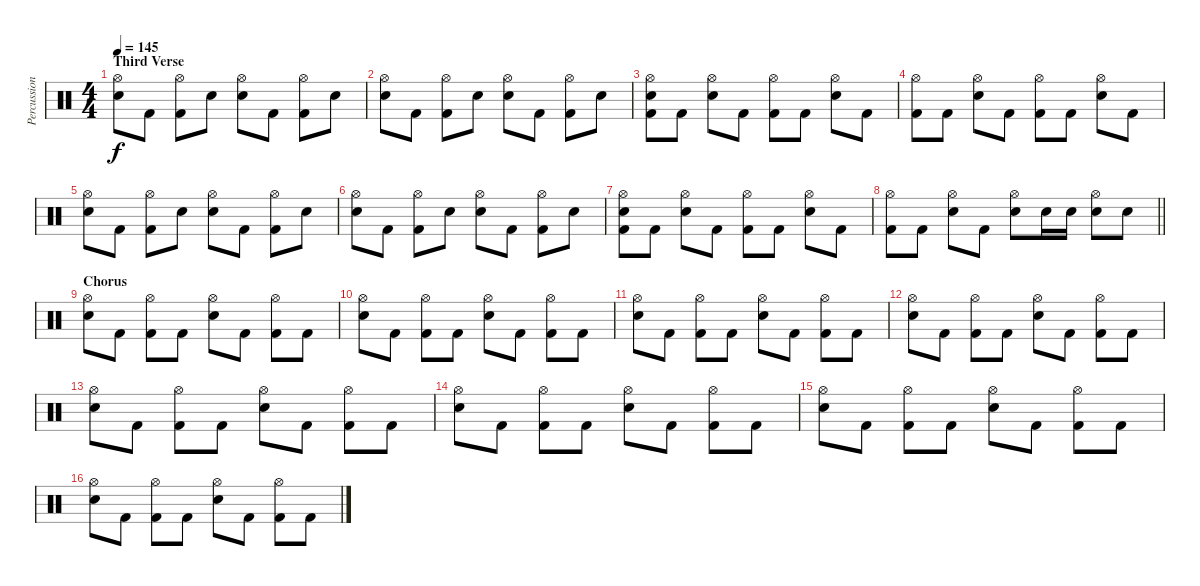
\track ("Percussion" "Percussion") {instrument percussion}
\staff {score}
\articulation defaults
\ts (4 4)
\section ("" "Third Verse")
\tempo 145
\clef neutral
\ks c
("Hi-Hat (open)" "Electric Snare (hit)").8{dy f} "Kick (hit) 2".8 ("Hi-Hat (open)" "Kick (hit) 2").8 "Electric Snare (hit)".8 ("Hi-Hat (open)" "Electric Snare (hit)").8 "Kick (hit) 2".8 ("Hi-Hat (open)" "Kick (hit) 2").8 "Electric Snare (hit)".8 |
("Hi-Hat (open)" "Electric Snare (hit)").8 "Kick (hit) 2".8 ("Hi-Hat (open)" "Kick (hit) 2").8 "Electric Snare (hit)".8 ("Hi-Hat (open)" "Electric Snare (hit)").8 "Kick (hit) 2".8 ("Hi-Hat (open)" "Kick (hit) 2").8 "Electric Snare (hit)".8 |
("Hi-Hat (open)" "Electric Snare (hit)" "Kick (hit) 2").8 "Kick (hit) 2".8 ("Hi-Hat (open)" "Electric Snare (hit)").8 "Kick (hit) 2".8 ("Hi-Hat (open)" "Kick (hit) 2").8 "Kick (hit) 2".8 ("Hi-Hat (open)" "Electric Snare (hit)").8 "Kick (hit) 2".8 |
("Hi-Hat (open)" "Kick (hit) 2").8 "Kick (hit) 2".8 ("Hi-Hat (open)" "Electric Snare (hit)").8 "Kick (hit) 2".8 ("Hi-Hat (open)" "Kick (hit) 2").8 "Kick (hit) 2".8 ("Hi-Hat (open)" "Electric Snare (hit)").8 "Kick (hit) 2".8 |
("Hi-Hat (open)" "Electric Snare (hit)").8 "Kick (hit) 2".8 ("Hi-Hat (open)" "Kick (hit) 2").8 "Electric Snare (hit)".8 ("Hi-Hat (open)" "Electric Snare (hit)").8 "Kick (hit) 2".8 ("Hi-Hat (open)" "Kick (hit) 2").8 "Electric Snare (hit)".8 |
("Hi-Hat (open)" "Electric Snare (hit)").8 "Kick (hit) 2".8 ("Hi-Hat (open)" "Kick (hit) 2").8 "Electric Snare (hit)".8 ("Hi-Hat (open)" "Electric Snare (hit)").8 "Kick (hit) 2".8 ("Hi-Hat (open)" "Kick (hit) 2").8 "Electric Snare (hit)".8 |
("Hi-Hat (open)" "Electric Snare (hit)" "Kick (hit) 2").8 "Kick (hit) 2".8 ("Hi-Hat (open)" "Electric Snare (hit)").8 "Kick (hit) 2".8 ("Hi-Hat (open)" "Kick (hit) 2").8 "Kick (hit) 2".8 ("Hi-Hat (open)" "Electric Snare (hit)").8 "Kick (hit) 2".8 |
\barLineRight lightlight
("Hi-Hat (open)" "Kick (hit) 2").8 "Kick (hit) 2".8 ("Hi-Hat (open)" "Electric Snare (hit)").8 "Kick (hit) 2".8 ("Hi-Hat (open)" "Electric Snare (hit)").8 "Electric Snare (hit)".16 "Electric Snare (hit)".16 ("Hi-Hat (open)" "Electric Snare (hit)").8 "Electric Snare (hit)".8 |
\section ("" "Chorus")
("Hi-Hat (open)" "Electric Snare (hit)").8 "Kick (hit) 2".8 ("Hi-Hat (open)" "Kick (hit) 2").8 "Kick (hit) 2".8 ("Hi-Hat (open)" "Electric Snare (hit)").8 "Kick (hit) 2".8 ("Hi-Hat (open)" "Kick (hit) 2").8 "Kick (hit) 2".8 |
("Hi-Hat (open)" "Electric Snare (hit)").8 "Kick (hit) 2".8 ("Hi-Hat (open)" "Kick (hit) 2").8 "Kick (hit) 2".8 ("Hi-Hat (open)" "Electric Snare (hit)").8 "Kick (hit) 2".8 ("Hi-Hat (open)" "Kick (hit) 2").8 "Kick (hit) 2".8 |
("Hi-Hat (open)" "Electric Snare (hit)").8 "Kick (hit) 2".8 ("Hi-Hat (open)" "Kick (hit) 2").8 "Kick (hit) 2".8 ("Hi-Hat (open)" "Electric Snare (hit)").8 "Kick (hit) 2".8 ("Hi-Hat (open)" "Kick (hit) 2").8 "Kick (hit) 2".8 |
("Hi-Hat (open)" "Electric Snare (hit)").8 "Kick (hit) 2".8 ("Hi-Hat (open)" "Kick (hit) 2").8 "Kick (hit) 2".8 ("Hi-Hat (open)" "Electric Snare (hit)").8 "Kick (hit) 2".8 ("Hi-Hat (open)" "Kick (hit) 2").8 "Kick (hit) 2".8 |
("Hi-Hat (open)" "Electric Snare (hit)").8 "Kick (hit) 2".8 ("Hi-Hat (open)" "Kick (hit) 2").8 "Kick (hit) 2".8 ("Hi-Hat (open)" "Electric Snare (hit)").8 "Kick (hit) 2".8 ("Hi-Hat (open)" "Kick (hit) 2").8 "Kick (hit) 2".8 |
("Hi-Hat (open)" "Electric Snare (hit)").8 "Kick (hit) 2".8 ("Hi-Hat (open)" "Kick (hit) 2").8 "Kick (hit) 2".8 ("Hi-Hat (open)" "Electric Snare (hit)").8 "Kick (hit) 2".8 ("Hi-Hat (open)" "Kick (hit) 2").8 "Kick (hit) 2".8 |
("Hi-Hat (open)" "Electric Snare (hit)").8 "Kick (hit) 2".8 ("Hi-Hat (open)" "Kick (hit) 2").8 "Kick (hit) 2".8 ("Hi-Hat (open)" "Electric Snare (hit)").8 "Kick (hit) 2".8 ("Hi-Hat (open)" "Kick (hit) 2").8 "Kick (hit) 2".8 |
("Hi-Hat (open)" "Electric Snare (hit)").8 "Kick (hit) 2".8 ("Hi-Hat (open)" "Kick (hit) 2").8 "Kick (hit) 2".8 ("Hi-Hat (open)" "Electric Snare (hit)").8 "Kick (hit) 2".8 ("Hi-Hat (open)" "Kick (hit) 2").8 "Kick (hit) 2".8
